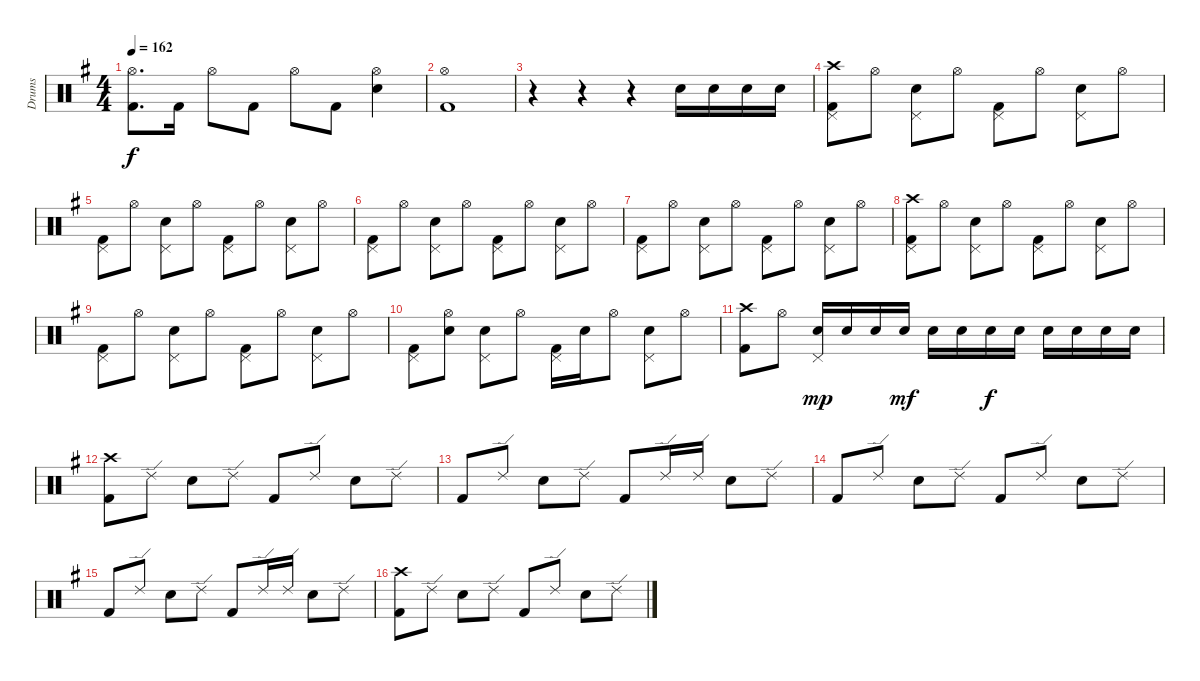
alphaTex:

\track ("Drums" "Drums") {instrument percussion}
\staff {score}
\articulation defaults
\ts (4 4)
\tempo 162
\clef neutral
\ks g
("Hi-Hat (open)" "Kick (hit) 2").8{d dy f} "Kick (hit) 2".16 "Hi-Hat (open)".8 "Kick (hit) 2".8 "Hi-Hat (open)".8 "Kick (hit) 2".8 ("Hi-Hat (open)" "Electric Snare (hit)").4 |
("Hi-Hat (open)" "Kick (hit) 2").1 |
r.4 r.4 r.4 "Electric Snare (hit)".16 "Electric Snare (hit)".16 "Electric Snare (hit)".16 "Electric Snare (hit)".16 |
("Crash high (hit)" "Pedal Hi-Hat (hit)" "Kick (hit) 2").8 "Hi-Hat (open)".8 ("Electric Snare (hit)" "Pedal Hi-Hat (hit)").8 "Hi-Hat (open)".8 ("Pedal Hi-Hat (hit)" "Kick (hit) 2").8 "Hi-Hat (open)".8 ("Electric Snare (hit)" "Pedal Hi-Hat (hit)").8 "Hi-Hat (open)".8 |
("Pedal Hi-Hat (hit)" "Kick (hit) 2").8 "Hi-Hat (open)".8 ("Electric Snare (hit)" "Pedal Hi-Hat (hit)").8 "Hi-Hat (open)".8 ("Pedal Hi-Hat (hit)" "Kick (hit) 2").8 "Hi-Hat (open)".8 ("Electric Snare (hit)" "Pedal Hi-Hat (hit)").8 "Hi-Hat (open)".8 |
("Pedal Hi-Hat (hit)" "Kick (hit) 2").8 "Hi-Hat (open)".8 ("Electric Snare (hit)" "Pedal Hi-Hat (hit)").8 "Hi-Hat (open)".8 ("Pedal Hi-Hat (hit)" "Kick (hit) 2").8 "Hi-Hat (open)".8 ("Electric Snare (hit)" "Pedal Hi-Hat (hit)").8 "Hi-Hat (open)".8 |
("Pedal Hi-Hat (hit)" "Kick (hit) 2").8 "Hi-Hat (open)".8 ("Electric Snare (hit)" "Pedal Hi-Hat (hit)").8 "Hi-Hat (open)".8 ("Pedal Hi-Hat (hit)" "Kick (hit) 2").8 "Hi-Hat (open)".8 ("Electric Snare (hit)" "Pedal Hi-Hat (hit)").8 "Hi-Hat (open)".8 |
("Crash high (hit)" "Pedal Hi-Hat (hit)" "Kick (hit) 2").8 "Hi-Hat (open)".8 ("Electric Snare (hit)" "Pedal Hi-Hat (hit)").8 "Hi-Hat (open)".8 ("Pedal Hi-Hat (hit)" "Kick (hit) 2").8 "Hi-Hat (open)".8 ("Electric Snare (hit)" "Pedal Hi-Hat (hit)").8 "Hi-Hat (open)".8 |
("Pedal Hi-Hat (hit)" "Kick (hit) 2").8 "Hi-Hat (open)".8 ("Electric Snare (hit)" "Pedal Hi-Hat (hit)").8 "Hi-Hat (open)".8 ("Pedal Hi-Hat (hit)" "Kick (hit) 2").8 "Hi-Hat (open)".8 ("Electric Snare (hit)" "Pedal Hi-Hat (hit)").8 "Hi-Hat (open)".8 |
("Pedal Hi-Hat (hit)" "Kick (hit) 2").8 ("Electric Snare (hit)" "Hi-Hat (open)").8 ("Electric Snare (hit)" "Pedal Hi-Hat (hit)").8 "Hi-Hat (open)".8 ("Pedal Hi-Hat (hit)" "Kick (hit) 2").16 "Electric Snare (hit)".16 "Hi-Hat (open)".8 ("Electric Snare (hit)" "Pedal Hi-Hat (hit)").8 "Hi-Hat (open)".8 |
("Crash high (hit)" "Kick (hit) 2").8 "Hi-Hat (open)".8 ("Electric Snare (hit)" "Pedal Hi-Hat (hit)").16{dy mp} "Electric Snare (hit)".16 "Electric Snare (hit)".16 "Electric Snare (hit)".16{dy mf} "Electric Snare (hit)".16 "Electric Snare (hit)".16 "Electric Snare (hit)".16{dy f} "Electric Snare (hit)".16 "Electric Snare (hit)".16 "Electric Snare (hit)".16 "Electric Snare (hit)".16 "Electric Snare (hit)".16 |
("Crash high (hit)" "Kick (hit) 2").8 "Ride (edge) 2".8 "Electric Snare (hit)".8 "Ride (edge) 2".8 "Kick (hit) 2".8 "Ride (edge) 2".8 "Electric Snare (hit)".8 "Ride (edge) 2".8 |
"Kick (hit) 2".8 "Ride (edge) 2".8 "Electric Snare (hit)".8 "Ride (edge) 2".8 "Kick (hit) 2".8 "Ride (edge) 2".16 "Ride (edge) 2".16 "Electric Snare (hit)".8 "Ride (edge) 2".8 |
"Kick (hit) 2".8 "Ride (edge) 2".8 "Electric Snare (hit)".8 "Ride (edge) 2".8 "Kick (hit) 2".8 "Ride (edge) 2".8 "Electric Snare (hit)".8 "Ride (edge) 2".8 |
"Kick (hit) 2".8 "Ride (edge) 2".8 "Electric Snare (hit)".8 "Ride (edge) 2".8 "Kick (hit) 2".8 "Ride (edge) 2".16 "Ride (edge) 2".16 "Electric Snare (hit)".8 "Ride (edge) 2".8 |
("Crash high (hit)" "Kick (hit) 2").8 "Ride (edge) 2".8 "Electric Snare (hit)".8 "Ride (edge) 2".8 "Kick (hit) 2".8 "Ride (edge) 2".8 "Electric Snare (hit)".8 "Ride (edge) 2".8
